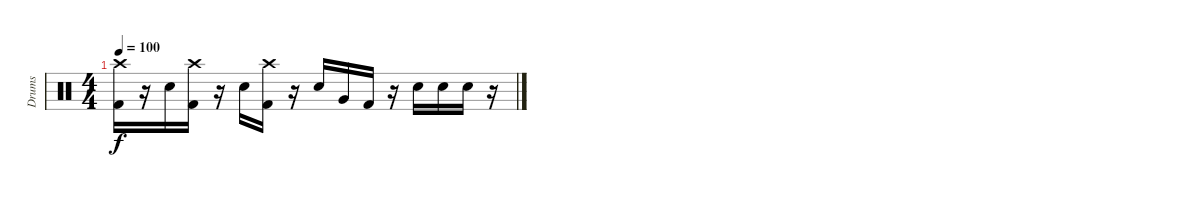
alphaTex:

\track ("Drums" "Drums") {instrument percussion}
\staff {score}
\articulation defaults
\ts (4 4)
\tempo 100
\clef neutral
\ks c
("Crash high (hit)" "Kick (hit) 2").16{dy f} r.16 "Electric Snare (hit)".16 ("Crash high (hit)" "Kick (hit) 2").16 r.16 "Electric Snare (hit)".16 ("Crash high (hit)" "Kick (hit) 2").16 r.16 "Electric Snare (hit)".16 "Very Low Tom (hit)".16 "Kick (hit) 2".16 r.16 "Electric Snare (hit)".16 "Electric Snare (hit)".16 "Electric Snare (hit)".16 r.16
